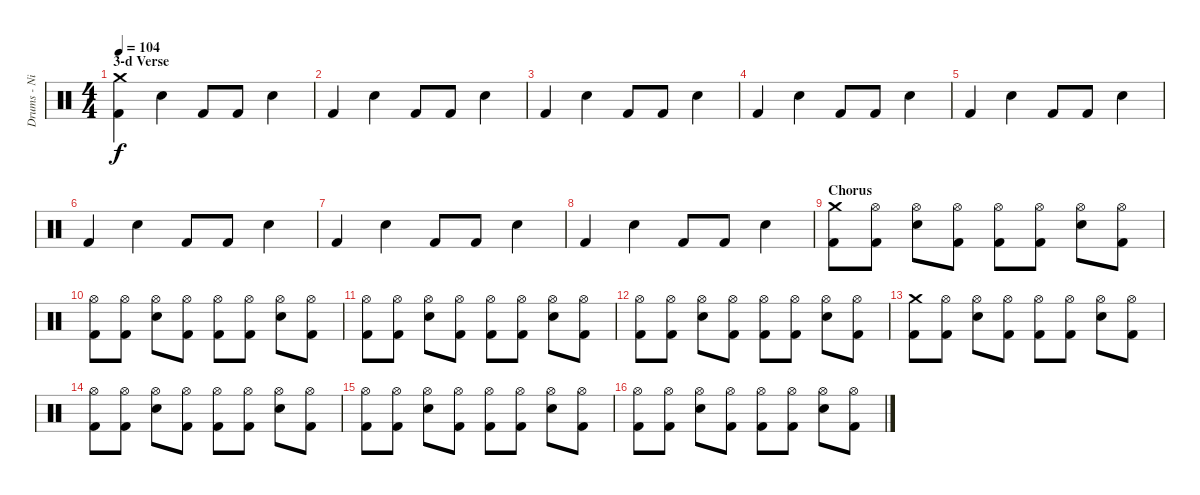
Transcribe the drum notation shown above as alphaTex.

\track ("Drums - Nick Jago" "Drums - Ni") {instrument percussion}
\staff {score}
\articulation defaults
\ts (4 4)
\section ("" "3-d Verse")
\tempo 104
\clef neutral
\ks c
("Crash medium (hit)" "Kick (hit) 2").4{dy f} "Electric Snare (hit)".4 "Kick (hit) 2".8 "Kick (hit) 2".8 "Electric Snare (hit)".4 |
"Kick (hit) 2".4 "Electric Snare (hit)".4 "Kick (hit) 2".8 "Kick (hit) 2".8 "Electric Snare (hit)".4 |
"Kick (hit) 2".4 "Electric Snare (hit)".4 "Kick (hit) 2".8 "Kick (hit) 2".8 "Electric Snare (hit)".4 |
"Kick (hit) 2".4 "Electric Snare (hit)".4 "Kick (hit) 2".8 "Kick (hit) 2".8 "Electric Snare (hit)".4 |
"Kick (hit) 2".4 "Electric Snare (hit)".4 "Kick (hit) 2".8 "Kick (hit) 2".8 "Electric Snare (hit)".4 |
"Kick (hit) 2".4 "Electric Snare (hit)".4 "Kick (hit) 2".8 "Kick (hit) 2".8 "Electric Snare (hit)".4 |
"Kick (hit) 2".4 "Electric Snare (hit)".4 "Kick (hit) 2".8 "Kick (hit) 2".8 "Electric Snare (hit)".4 |
"Kick (hit) 2".4 "Electric Snare (hit)".4 "Kick (hit) 2".8 "Kick (hit) 2".8 "Electric Snare (hit)".4 |
\section ("" "Chorus")
("Crash medium (hit)" "Kick (hit) 2").8 ("Hi-Hat (open)" "Kick (hit) 2").8 ("Hi-Hat (open)" "Electric Snare (hit)").8 ("Hi-Hat (open)" "Kick (hit) 2").8 ("Hi-Hat (open)" "Kick (hit) 2").8 ("Hi-Hat (open)" "Kick (hit) 2").8 ("Hi-Hat (open)" "Electric Snare (hit)").8 ("Hi-Hat (open)" "Kick (hit) 2").8 |
("Hi-Hat (open)" "Kick (hit) 2").8 ("Hi-Hat (open)" "Kick (hit) 2").8 ("Hi-Hat (open)" "Electric Snare (hit)").8 ("Hi-Hat (open)" "Kick (hit) 2").8 ("Hi-Hat (open)" "Kick (hit) 2").8 ("Hi-Hat (open)" "Kick (hit) 2").8 ("Hi-Hat (open)" "Electric Snare (hit)").8 ("Hi-Hat (open)" "Kick (hit) 2").8 |
("Hi-Hat (open)" "Kick (hit) 2").8 ("Hi-Hat (open)" "Kick (hit) 2").8 ("Hi-Hat (open)" "Electric Snare (hit)").8 ("Hi-Hat (open)" "Kick (hit) 2").8 ("Hi-Hat (open)" "Kick (hit) 2").8 ("Hi-Hat (open)" "Kick (hit) 2").8 ("Hi-Hat (open)" "Electric Snare (hit)").8 ("Hi-Hat (open)" "Kick (hit) 2").8 |
("Hi-Hat (open)" "Kick (hit) 2").8 ("Hi-Hat (open)" "Kick (hit) 2").8 ("Hi-Hat (open)" "Electric Snare (hit)").8 ("Hi-Hat (open)" "Kick (hit) 2").8 ("Hi-Hat (open)" "Kick (hit) 2").8 ("Hi-Hat (open)" "Kick (hit) 2").8 ("Hi-Hat (open)" "Electric Snare (hit)").8 ("Hi-Hat (open)" "Kick (hit) 2").8 |
("Crash medium (hit)" "Kick (hit) 2").8 ("Hi-Hat (open)" "Kick (hit) 2").8 ("Hi-Hat (open)" "Electric Snare (hit)").8 ("Hi-Hat (open)" "Kick (hit) 2").8 ("Hi-Hat (open)" "Kick (hit) 2").8 ("Hi-Hat (open)" "Kick (hit) 2").8 ("Hi-Hat (open)" "Electric Snare (hit)").8 ("Hi-Hat (open)" "Kick (hit) 2").8 |
("Hi-Hat (open)" "Kick (hit) 2").8 ("Hi-Hat (open)" "Kick (hit) 2").8 ("Hi-Hat (open)" "Electric Snare (hit)").8 ("Hi-Hat (open)" "Kick (hit) 2").8 ("Hi-Hat (open)" "Kick (hit) 2").8 ("Hi-Hat (open)" "Kick (hit) 2").8 ("Hi-Hat (open)" "Electric Snare (hit)").8 ("Hi-Hat (open)" "Kick (hit) 2").8 |
("Hi-Hat (open)" "Kick (hit) 2").8 ("Hi-Hat (open)" "Kick (hit) 2").8 ("Hi-Hat (open)" "Electric Snare (hit)").8 ("Hi-Hat (open)" "Kick (hit) 2").8 ("Hi-Hat (open)" "Kick (hit) 2").8 ("Hi-Hat (open)" "Kick (hit) 2").8 ("Hi-Hat (open)" "Electric Snare (hit)").8 ("Hi-Hat (open)" "Kick (hit) 2").8 |
("Hi-Hat (open)" "Kick (hit) 2").8 ("Hi-Hat (open)" "Kick (hit) 2").8 ("Hi-Hat (open)" "Electric Snare (hit)").8 ("Hi-Hat (open)" "Kick (hit) 2").8 ("Hi-Hat (open)" "Kick (hit) 2").8 ("Hi-Hat (open)" "Kick (hit) 2").8 ("Hi-Hat (open)" "Electric Snare (hit)").8 ("Hi-Hat (open)" "Kick (hit) 2").8
